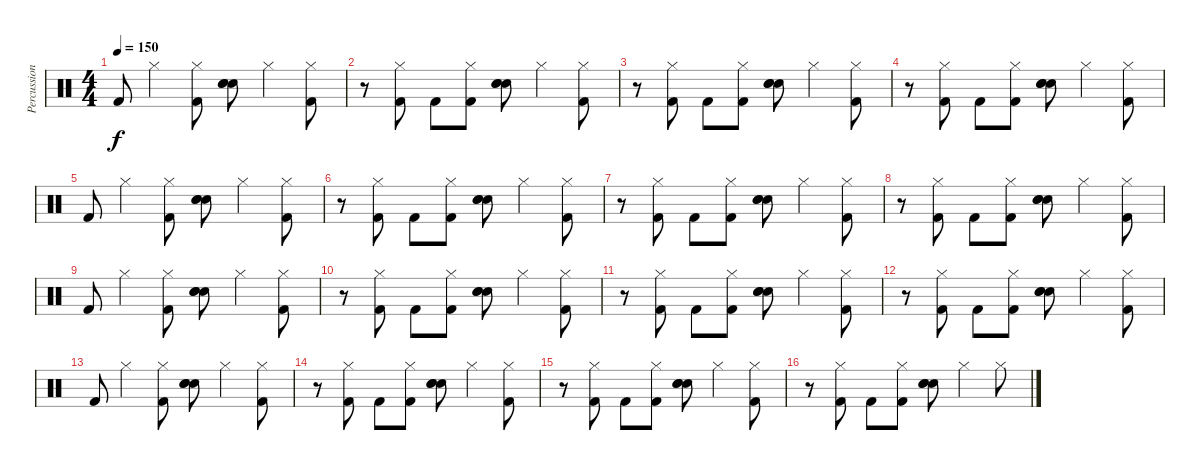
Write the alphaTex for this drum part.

\track ("Percussion" "Percussion") {instrument percussion}
\staff {score}
\articulation defaults
\ts (4 4)
\tempo 150
\clef neutral
\ks c "Kick (hit) 2".8{dy f} "Hi-Hat (closed)".4
("Hi-Hat (closed)" "Kick (hit) 2").8 ("Hand Clap (hit)" "Electric Snare (hit)" "Snare (hit) 2").8 "Hi-Hat (closed)".4 ("Hi-Hat (closed)" "Kick (hit) 2").8 |
r.8 ("Hi-Hat (closed)" "Kick (hit) 2").8 "Kick (hit) 2".8 ("Hi-Hat (closed)" "Kick (hit) 2").8 ("Hand Clap (hit)" "Electric Snare (hit)" "Snare (hit) 2").8 "Hi-Hat (closed)".4 ("Hi-Hat (closed)" "Kick (hit) 2").8 |
r.8 ("Hi-Hat (closed)" "Kick (hit) 2").8 "Kick (hit) 2".8 ("Hi-Hat (closed)" "Kick (hit) 2").8 ("Hand Clap (hit)" "Electric Snare (hit)" "Snare (hit) 2").8 "Hi-Hat (closed)".4 ("Hi-Hat (closed)" "Kick (hit) 2").8 |
r.8 ("Hi-Hat (closed)" "Kick (hit) 2").8 "Kick (hit) 2".8 ("Hi-Hat (closed)" "Kick (hit) 2").8 ("Hand Clap (hit)" "Electric Snare (hit)" "Snare (hit) 2").8 "Hi-Hat (closed)".4 ("Hi-Hat (closed)" "Kick (hit) 2").8 |
"Kick (hit) 2".8 "Hi-Hat (closed)".4 ("Hi-Hat (closed)" "Kick (hit) 2").8 ("Hand Clap (hit)" "Electric Snare (hit)" "Snare (hit) 2").8 "Hi-Hat (closed)".4 ("Hi-Hat (closed)" "Kick (hit) 2").8 |
r.8 ("Hi-Hat (closed)" "Kick (hit) 2").8 "Kick (hit) 2".8 ("Hi-Hat (closed)" "Kick (hit) 2").8 ("Hand Clap (hit)" "Electric Snare (hit)" "Snare (hit) 2").8 "Hi-Hat (closed)".4 ("Hi-Hat (closed)" "Kick (hit) 2").8 |
r.8 ("Hi-Hat (closed)" "Kick (hit) 2").8 "Kick (hit) 2".8 ("Hi-Hat (closed)" "Kick (hit) 2").8 ("Hand Clap (hit)" "Electric Snare (hit)" "Snare (hit) 2").8 "Hi-Hat (closed)".4 ("Hi-Hat (closed)" "Kick (hit) 2").8 |
r.8 ("Hi-Hat (closed)" "Kick (hit) 2").8 "Kick (hit) 2".8 ("Hi-Hat (closed)" "Kick (hit) 2").8 ("Hand Clap (hit)" "Electric Snare (hit)" "Snare (hit) 2").8 "Hi-Hat (closed)".4 ("Hi-Hat (closed)" "Kick (hit) 2").8 |
"Kick (hit) 2".8 "Hi-Hat (closed)".4 ("Hi-Hat (closed)" "Kick (hit) 2").8 ("Hand Clap (hit)" "Electric Snare (hit)" "Snare (hit) 2").8 "Hi-Hat (closed)".4 ("Hi-Hat (closed)" "Kick (hit) 2").8 |
r.8 ("Hi-Hat (closed)" "Kick (hit) 2").8 "Kick (hit) 2".8 ("Hi-Hat (closed)" "Kick (hit) 2").8 ("Hand Clap (hit)" "Electric Snare (hit)" "Snare (hit) 2").8 "Hi-Hat (closed)".4 ("Hi-Hat (closed)" "Kick (hit) 2").8 |
r.8 ("Hi-Hat (closed)" "Kick (hit) 2").8 "Kick (hit) 2".8 ("Hi-Hat (closed)" "Kick (hit) 2").8 ("Hand Clap (hit)" "Electric Snare (hit)" "Snare (hit) 2").8 "Hi-Hat (closed)".4 ("Hi-Hat (closed)" "Kick (hit) 2").8 |
r.8 ("Hi-Hat (closed)" "Kick (hit) 2").8 "Kick (hit) 2".8 ("Hi-Hat (closed)" "Kick (hit) 2").8 ("Hand Clap (hit)" "Electric Snare (hit)" "Snare (hit) 2").8 "Hi-Hat (closed)".4 ("Hi-Hat (closed)" "Kick (hit) 2").8 |
"Kick (hit) 2".8 "Hi-Hat (closed)".4 ("Hi-Hat (closed)" "Kick (hit) 2").8 ("Hand Clap (hit)" "Electric Snare (hit)" "Snare (hit) 2").8 "Hi-Hat (closed)".4 ("Hi-Hat (closed)" "Kick (hit) 2").8 |
r.8 ("Hi-Hat (closed)" "Kick (hit) 2").8 "Kick (hit) 2".8 ("Hi-Hat (closed)" "Kick (hit) 2").8 ("Hand Clap (hit)" "Electric Snare (hit)" "Snare (hit) 2").8 "Hi-Hat (closed)".4 ("Hi-Hat (closed)" "Kick (hit) 2").8 |
r.8 ("Hi-Hat (closed)" "Kick (hit) 2").8 "Kick (hit) 2".8 ("Hi-Hat (closed)" "Kick (hit) 2").8 ("Hand Clap (hit)" "Electric Snare (hit)" "Snare (hit) 2").8 "Hi-Hat (closed)".4 ("Hi-Hat (closed)" "Kick (hit) 2").8 |
r.8 ("Hi-Hat (closed)" "Kick (hit) 2").8 "Kick (hit) 2".8 ("Hi-Hat (closed)" "Kick (hit) 2").8 ("Hand Clap (hit)" "Electric Snare (hit)" "Snare (hit) 2").8 "Hi-Hat (closed)".4 "Hi-Hat (closed)".8
